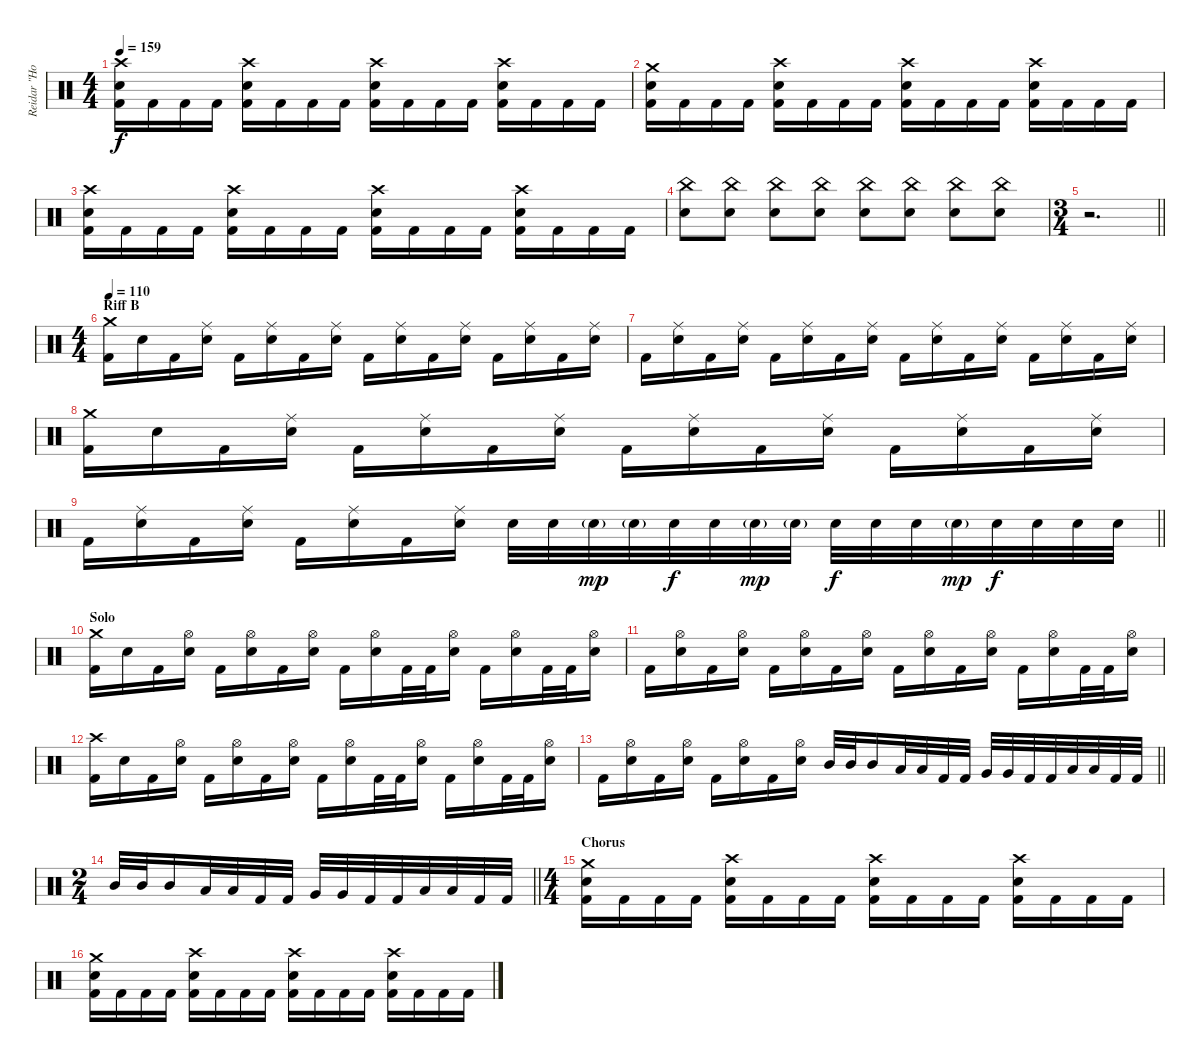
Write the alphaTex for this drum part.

\track ("Reidar \"Horgh\" Horghagen " "Reidar \"Ho") {instrument percussion}
\staff {score}
\articulation defaults
\ts (4 4)
\tempo 159
\clef neutral
\ks c
("Crash high (hit)" "Snare (hit) 2" "Kick (hit) 2").16{dy f} "Kick (hit) 2".16 "Kick (hit) 2".16 "Kick (hit) 2".16 ("Crash high (hit)" "Snare (hit) 2" "Kick (hit) 2").16 "Kick (hit) 2".16 "Kick (hit) 2".16 "Kick (hit) 2".16 ("Crash high (hit)" "Snare (hit) 2" "Kick (hit) 2").16 "Kick (hit) 2".16 "Kick (hit) 2".16 "Kick (hit) 2".16 ("Crash high (hit)" "Snare (hit) 2" "Kick (hit) 2").16 "Kick (hit) 2".16 "Kick (hit) 2".16 "Kick (hit) 2".16 |
("Crash medium (hit)" "Snare (hit) 2" "Kick (hit) 2").16 "Kick (hit) 2".16 "Kick (hit) 2".16 "Kick (hit) 2".16 ("Crash high (hit)" "Snare (hit) 2" "Kick (hit) 2").16 "Kick (hit) 2".16 "Kick (hit) 2".16 "Kick (hit) 2".16 ("Crash high (hit)" "Snare (hit) 2" "Kick (hit) 2").16 "Kick (hit) 2".16 "Kick (hit) 2".16 "Kick (hit) 2".16 ("Crash high (hit)" "Snare (hit) 2" "Kick (hit) 2").16 "Kick (hit) 2".16 "Kick (hit) 2".16 "Kick (hit) 2".16 |
("Crash high (hit)" "Snare (hit) 2" "Kick (hit) 2").16 "Kick (hit) 2".16 "Kick (hit) 2".16 "Kick (hit) 2".16 ("Crash high (hit)" "Snare (hit) 2" "Kick (hit) 2").16 "Kick (hit) 2".16 "Kick (hit) 2".16 "Kick (hit) 2".16 ("Crash high (hit)" "Snare (hit) 2" "Kick (hit) 2").16 "Kick (hit) 2".16 "Kick (hit) 2".16 "Kick (hit) 2".16 ("Crash high (hit)" "Snare (hit) 2" "Kick (hit) 2").16 "Kick (hit) 2".16 "Kick (hit) 2".16 "Kick (hit) 2".16 |
("China (hit)" "Snare (hit) 2").8 ("China (hit)" "Snare (hit) 2").8 ("China (hit)" "Snare (hit) 2").8 ("China (hit)" "Snare (hit) 2").8 ("China (hit)" "Snare (hit) 2").8 ("China (hit)" "Snare (hit) 2").8 ("China (hit)" "Snare (hit) 2").8 ("China (hit)" "Snare (hit) 2").8 |
\ts (3 4)
\barLineRight lightlight
r.2{d} |
\ts (4 4)
\section ("" "Riff B")
\tempo 110
("Crash medium (hit)" "Kick (hit) 2").16 "Snare (hit) 2".16 "Kick (hit) 2".16 ("Ride (middle)" "Snare (hit) 2").16 "Kick (hit) 2".16 ("Ride (middle)" "Snare (hit) 2").16 "Kick (hit) 2".16 ("Ride (middle)" "Snare (hit) 2").16 "Kick (hit) 2".16 ("Ride (middle)" "Snare (hit) 2").16 "Kick (hit) 2".16 ("Ride (middle)" "Snare (hit) 2").16 "Kick (hit) 2".16 ("Ride (middle)" "Snare (hit) 2").16 "Kick (hit) 2".16 ("Ride (middle)" "Snare (hit) 2").16 |
"Kick (hit) 2".16 ("Ride (middle)" "Snare (hit) 2").16 "Kick (hit) 2".16 ("Ride (middle)" "Snare (hit) 2").16 "Kick (hit) 2".16 ("Ride (middle)" "Snare (hit) 2").16 "Kick (hit) 2".16 ("Ride (middle)" "Snare (hit) 2").16 "Kick (hit) 2".16 ("Ride (middle)" "Snare (hit) 2").16 "Kick (hit) 2".16 ("Ride (middle)" "Snare (hit) 2").16 "Kick (hit) 2".16 ("Ride (middle)" "Snare (hit) 2").16 "Kick (hit) 2".16 ("Ride (middle)" "Snare (hit) 2").16 |
("Crash medium (hit)" "Kick (hit) 2").16 "Snare (hit) 2".16 "Kick (hit) 2".16 ("Ride (middle)" "Snare (hit) 2").16 "Kick (hit) 2".16 ("Ride (middle)" "Snare (hit) 2").16 "Kick (hit) 2".16 ("Ride (middle)" "Snare (hit) 2").16 "Kick (hit) 2".16 ("Ride (middle)" "Snare (hit) 2").16 "Kick (hit) 2".16 ("Ride (middle)" "Snare (hit) 2").16 "Kick (hit) 2".16 ("Ride (middle)" "Snare (hit) 2").16 "Kick (hit) 2".16 ("Ride (middle)" "Snare (hit) 2").16 |
\barLineRight lightlight "Kick (hit) 2".16
("Ride (middle)" "Snare (hit) 2").16 "Kick (hit) 2".16 ("Ride (middle)" "Snare (hit) 2").16 "Kick (hit) 2".16 ("Ride (middle)" "Snare (hit) 2").16 "Kick (hit) 2".16 ("Ride (middle)" "Snare (hit) 2").16 "Snare (hit) 2".32 "Snare (hit) 2".32 "Snare (hit) 2"{g}.32{dy mp} "Snare (hit) 2"{g}.32 "Snare (hit) 2".32{dy f} "Snare (hit) 2".32 "Snare (hit) 2"{g}.32{dy mp} "Snare (hit) 2"{g}.32 "Snare (hit) 2".32{dy f} "Snare (hit) 2".32 "Snare (hit) 2".32 "Snare (hit) 2"{g}.32{dy mp} "Snare (hit) 2".32{dy f} "Snare (hit) 2".32 "Snare (hit) 2".32 "Snare (hit) 2".32 |
\section ("" "Solo")
("Crash medium (hit)" "Kick (hit) 2").16 "Snare (hit) 2".16 "Kick (hit) 2".16 ("Hi-Hat (open)" "Snare (hit) 2").16 "Kick (hit) 2".16 ("Hi-Hat (open)" "Snare (hit) 2").16 "Kick (hit) 2".16 ("Hi-Hat (open)" "Snare (hit) 2").16 "Kick (hit) 2".16 ("Hi-Hat (open)" "Snare (hit) 2").16 "Kick (hit) 2".32 "Kick (hit) 2".32 ("Hi-Hat (open)" "Snare (hit) 2").16 "Kick (hit) 2".16 ("Hi-Hat (open)" "Snare (hit) 2").16 "Kick (hit) 2".32 "Kick (hit) 2".32 ("Hi-Hat (open)" "Snare (hit) 2").16 |
"Kick (hit) 2".16 ("Hi-Hat (open)" "Snare (hit) 2").16 "Kick (hit) 2".16 ("Hi-Hat (open)" "Snare (hit) 2").16 "Kick (hit) 2".16 ("Hi-Hat (open)" "Snare (hit) 2").16 "Kick (hit) 2".16 ("Hi-Hat (open)" "Snare (hit) 2").16 "Kick (hit) 2".16 ("Hi-Hat (open)" "Snare (hit) 2").16 "Kick (hit) 2".16 ("Hi-Hat (open)" "Snare (hit) 2").16 "Kick (hit) 2".16 ("Hi-Hat (open)" "Snare (hit) 2").16 "Kick (hit) 2".32 "Kick (hit) 2".32 ("Hi-Hat (open)" "Snare (hit) 2").16 |
("Crash high (hit)" "Kick (hit) 2").16 "Snare (hit) 2".16 "Kick (hit) 2".16 ("Hi-Hat (open)" "Snare (hit) 2").16 "Kick (hit) 2".16 ("Hi-Hat (open)" "Snare (hit) 2").16 "Kick (hit) 2".16 ("Hi-Hat (open)" "Snare (hit) 2").16 "Kick (hit) 2".16 ("Hi-Hat (open)" "Snare (hit) 2").16 "Kick (hit) 2".32 "Kick (hit) 2".32 ("Hi-Hat (open)" "Snare (hit) 2").16 "Kick (hit) 2".16 ("Hi-Hat (open)" "Snare (hit) 2").16 "Kick (hit) 2".32 "Kick (hit) 2".32 ("Hi-Hat (open)" "Snare (hit) 2").16 |
\barLineRight lightlight "Kick (hit) 2".16
("Hi-Hat (open)" "Snare (hit) 2").16 "Kick (hit) 2".16 ("Hi-Hat (open)" "Snare (hit) 2").16 "Kick (hit) 2".16 ("Hi-Hat (open)" "Snare (hit) 2").16 "Kick (hit) 2".16 ("Hi-Hat (open)" "Snare (hit) 2").16 "Mid Tom (hit)".32 "Mid Tom (hit)".32 "Mid Tom (hit)".16 "Low Tom (hit)".32 "Low Tom (hit)".32 "Kick (hit) 2".32 "Kick (hit) 2".32 "Very Low Tom (hit)".32 "Very Low Tom (hit)".32 "Kick (hit) 2".32 "Kick (hit) 2".32 "Low Floor Tom (hit)".32 "Low Floor Tom (hit)".32 "Kick (hit) 2".32 "Kick (hit) 2".32 |
\ts (2 4)
\barLineRight lightlight "Mid Tom (hit)".32 "Mid Tom (hit)".32 "Mid Tom (hit)".16 "Low Tom (hit)".32 "Low Tom (hit)".32 "Kick (hit) 2".32 "Kick (hit) 2".32 "Very Low Tom (hit)".32 "Very Low Tom (hit)".32 "Kick (hit) 2".32 "Kick (hit) 2".32 "Low Floor Tom (hit)".32 "Low Floor Tom (hit)".32 "Kick (hit) 2".32 "Kick (hit) 2".32
|
\ts (4 4)
\section ("" "Chorus")
("Crash medium (hit)" "Snare (hit) 2" "Kick (hit) 2").16 "Kick (hit) 2".16 "Kick (hit) 2".16 "Kick (hit) 2".16 ("Crash high (hit)" "Snare (hit) 2" "Kick (hit) 2").16 "Kick (hit) 2".16 "Kick (hit) 2".16 "Kick (hit) 2".16 ("Crash high (hit)" "Snare (hit) 2" "Kick (hit) 2").16 "Kick (hit) 2".16 "Kick (hit) 2".16 "Kick (hit) 2".16 ("Crash high (hit)" "Snare (hit) 2" "Kick (hit) 2").16 "Kick (hit) 2".16 "Kick (hit) 2".16 "Kick (hit) 2".16 |
("Crash medium (hit)" "Snare (hit) 2" "Kick (hit) 2").16 "Kick (hit) 2".16 "Kick (hit) 2".16 "Kick (hit) 2".16 ("Crash high (hit)" "Snare (hit) 2" "Kick (hit) 2").16 "Kick (hit) 2".16 "Kick (hit) 2".16 "Kick (hit) 2".16 ("Crash high (hit)" "Snare (hit) 2" "Kick (hit) 2").16 "Kick (hit) 2".16 "Kick (hit) 2".16 "Kick (hit) 2".16 ("Crash high (hit)" "Snare (hit) 2" "Kick (hit) 2").16 "Kick (hit) 2".16 "Kick (hit) 2".16 "Kick (hit) 2".16
